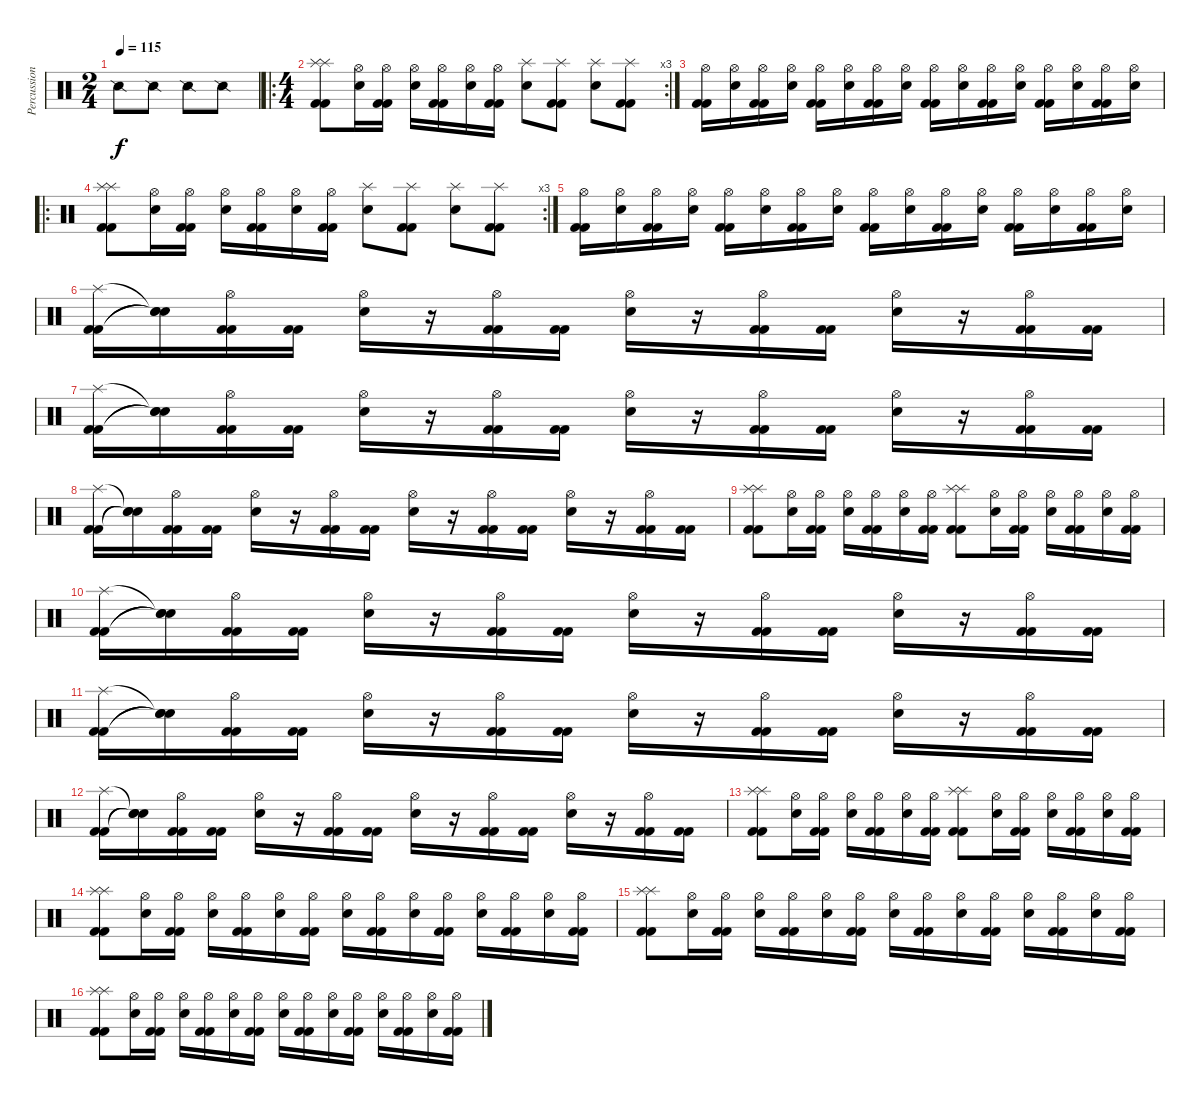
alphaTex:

\track ("Percussion" "Percussion") {instrument percussion}
\staff {score}
\articulation defaults
\ts (2 4)
\tempo 115
\clef neutral
\ks c "Snare (side stick) 2".8{dy f} "Snare (side stick) 2".8 "Snare (side stick) 2".8 "Snare (side stick) 2".8
|
\ro
\rc 3
\ts (4 4)
("Splash (hit)" "Splash (hit)" "Kick (hit) 2" "Kick (hit) 2").8 ("Hi-Hat (open)" "Electric Snare (hit)").16 ("Hi-Hat (open)" "Kick (hit) 2" "Kick (hit) 2").16 ("Hi-Hat (open)" "Electric Snare (hit)").16 ("Hi-Hat (open)" "Kick (hit) 2" "Kick (hit) 2").16 ("Hi-Hat (open)" "Electric Snare (hit)").16 ("Hi-Hat (open)" "Kick (hit) 2" "Kick (hit) 2").16 ("Splash (hit)" "Electric Snare (hit)").8 ("Splash (hit)" "Kick (hit) 2" "Kick (hit) 2").8 ("Splash (hit)" "Electric Snare (hit)").8 ("Splash (hit)" "Kick (hit) 2" "Kick (hit) 2").8 |
("Hi-Hat (open)" "Kick (hit) 2" "Kick (hit) 2").16 ("Hi-Hat (open)" "Electric Snare (hit)").16 ("Hi-Hat (open)" "Kick (hit) 2" "Kick (hit) 2").16 ("Hi-Hat (open)" "Electric Snare (hit)").16 ("Hi-Hat (open)" "Kick (hit) 2" "Kick (hit) 2").16 ("Hi-Hat (open)" "Electric Snare (hit)").16 ("Hi-Hat (open)" "Kick (hit) 2" "Kick (hit) 2").16 ("Hi-Hat (open)" "Electric Snare (hit)").16 ("Hi-Hat (open)" "Kick (hit) 2" "Kick (hit) 2").16 ("Hi-Hat (open)" "Electric Snare (hit)").16 ("Hi-Hat (open)" "Kick (hit) 2" "Kick (hit) 2").16 ("Hi-Hat (open)" "Electric Snare (hit)").16 ("Hi-Hat (open)" "Kick (hit) 2" "Kick (hit) 2").16 ("Hi-Hat (open)" "Electric Snare (hit)").16 ("Hi-Hat (open)" "Kick (hit) 2" "Kick (hit) 2").16 ("Hi-Hat (open)" "Electric Snare (hit)").16 |
\ro
\rc 3
("Splash (hit)" "Splash (hit)" "Kick (hit) 2" "Kick (hit) 2").8 ("Hi-Hat (open)" "Electric Snare (hit)").16 ("Hi-Hat (open)" "Kick (hit) 2" "Kick (hit) 2").16 ("Hi-Hat (open)" "Electric Snare (hit)").16 ("Hi-Hat (open)" "Kick (hit) 2" "Kick (hit) 2").16 ("Hi-Hat (open)" "Electric Snare (hit)").16 ("Hi-Hat (open)" "Kick (hit) 2" "Kick (hit) 2").16 ("Splash (hit)" "Electric Snare (hit)").8 ("Splash (hit)" "Kick (hit) 2" "Kick (hit) 2").8 ("Splash (hit)" "Electric Snare (hit)").8 ("Splash (hit)" "Kick (hit) 2" "Kick (hit) 2").8 |
("Hi-Hat (open)" "Kick (hit) 2" "Kick (hit) 2").16 ("Hi-Hat (open)" "Electric Snare (hit)").16 ("Hi-Hat (open)" "Kick (hit) 2" "Kick (hit) 2").16 ("Hi-Hat (open)" "Electric Snare (hit)").16 ("Hi-Hat (open)" "Kick (hit) 2" "Kick (hit) 2").16 ("Hi-Hat (open)" "Electric Snare (hit)").16 ("Hi-Hat (open)" "Kick (hit) 2" "Kick (hit) 2").16 ("Hi-Hat (open)" "Electric Snare (hit)").16 ("Hi-Hat (open)" "Kick (hit) 2" "Kick (hit) 2").16 ("Hi-Hat (open)" "Electric Snare (hit)").16 ("Hi-Hat (open)" "Kick (hit) 2" "Kick (hit) 2").16 ("Hi-Hat (open)" "Electric Snare (hit)").16 ("Hi-Hat (open)" "Kick (hit) 2" "Kick (hit) 2").16 ("Hi-Hat (open)" "Electric Snare (hit)").16 ("Hi-Hat (open)" "Kick (hit) 2" "Kick (hit) 2").16 ("Hi-Hat (open)" "Electric Snare (hit)").16 |
("Splash (hit)" "Kick (hit) 2" "Kick (hit) 2").16 ("Snare (hit)"{t} "Snare (hit)"{t} "Snare (hit)"{t}).16 ("Hi-Hat (open)" "Kick (hit) 2" "Kick (hit) 2").16 ("Kick (hit) 2" "Kick (hit) 2").16 ("Hi-Hat (open)" "Electric Snare (hit)").16 r.16 ("Hi-Hat (open)" "Kick (hit) 2" "Kick (hit) 2").16 ("Kick (hit) 2" "Kick (hit) 2").16 ("Hi-Hat (open)" "Electric Snare (hit)").16 r.16 ("Hi-Hat (open)" "Kick (hit) 2" "Kick (hit) 2").16 ("Kick (hit) 2" "Kick (hit) 2").16 ("Hi-Hat (open)" "Electric Snare (hit)").16 r.16 ("Hi-Hat (open)" "Kick (hit) 2" "Kick (hit) 2").16 ("Kick (hit) 2" "Kick (hit) 2").16 |
("Splash (hit)" "Kick (hit) 2" "Kick (hit) 2").16 ("Snare (hit)"{t} "Snare (hit)"{t} "Snare (hit)"{t}).16 ("Hi-Hat (open)" "Kick (hit) 2" "Kick (hit) 2").16 ("Kick (hit) 2" "Kick (hit) 2").16 ("Hi-Hat (open)" "Electric Snare (hit)").16 r.16 ("Hi-Hat (open)" "Kick (hit) 2" "Kick (hit) 2").16 ("Kick (hit) 2" "Kick (hit) 2").16 ("Hi-Hat (open)" "Electric Snare (hit)").16 r.16 ("Hi-Hat (open)" "Kick (hit) 2" "Kick (hit) 2").16 ("Kick (hit) 2" "Kick (hit) 2").16 ("Hi-Hat (open)" "Electric Snare (hit)").16 r.16 ("Hi-Hat (open)" "Kick (hit) 2" "Kick (hit) 2").16 ("Kick (hit) 2" "Kick (hit) 2").16 |
("Splash (hit)" "Kick (hit) 2" "Kick (hit) 2").16 ("Snare (hit)"{t} "Snare (hit)"{t} "Snare (hit)"{t}).16 ("Hi-Hat (open)" "Kick (hit) 2" "Kick (hit) 2").16 ("Kick (hit) 2" "Kick (hit) 2").16 ("Hi-Hat (open)" "Electric Snare (hit)").16 r.16 ("Hi-Hat (open)" "Kick (hit) 2" "Kick (hit) 2").16 ("Kick (hit) 2" "Kick (hit) 2").16 ("Hi-Hat (open)" "Electric Snare (hit)").16 r.16 ("Hi-Hat (open)" "Kick (hit) 2" "Kick (hit) 2").16 ("Kick (hit) 2" "Kick (hit) 2").16 ("Hi-Hat (open)" "Electric Snare (hit)").16 r.16 ("Hi-Hat (open)" "Kick (hit) 2" "Kick (hit) 2").16 ("Kick (hit) 2" "Kick (hit) 2").16 |
("Splash (hit)" "Splash (hit)" "Kick (hit) 2" "Kick (hit) 2").8 ("Hi-Hat (open)" "Electric Snare (hit)").16 ("Hi-Hat (open)" "Kick (hit) 2" "Kick (hit) 2").16 ("Hi-Hat (open)" "Electric Snare (hit)").16 ("Hi-Hat (open)" "Kick (hit) 2" "Kick (hit) 2").16 ("Hi-Hat (open)" "Electric Snare (hit)").16 ("Hi-Hat (open)" "Kick (hit) 2" "Kick (hit) 2").16 ("Splash (hit)" "Splash (hit)" "Kick (hit) 2" "Kick (hit) 2").8 ("Hi-Hat (open)" "Electric Snare (hit)").16 ("Hi-Hat (open)" "Kick (hit) 2" "Kick (hit) 2").16 ("Hi-Hat (open)" "Electric Snare (hit)").16 ("Hi-Hat (open)" "Kick (hit) 2" "Kick (hit) 2").16 ("Hi-Hat (open)" "Electric Snare (hit)").16 ("Hi-Hat (open)" "Kick (hit) 2" "Kick (hit) 2").16 |
("Splash (hit)" "Kick (hit) 2" "Kick (hit) 2").16 ("Snare (hit)"{t} "Snare (hit)"{t} "Snare (hit)"{t}).16 ("Hi-Hat (open)" "Kick (hit) 2" "Kick (hit) 2").16 ("Kick (hit) 2" "Kick (hit) 2").16 ("Hi-Hat (open)" "Electric Snare (hit)").16 r.16 ("Hi-Hat (open)" "Kick (hit) 2" "Kick (hit) 2").16 ("Kick (hit) 2" "Kick (hit) 2").16 ("Hi-Hat (open)" "Electric Snare (hit)").16 r.16 ("Hi-Hat (open)" "Kick (hit) 2" "Kick (hit) 2").16 ("Kick (hit) 2" "Kick (hit) 2").16 ("Hi-Hat (open)" "Electric Snare (hit)").16 r.16 ("Hi-Hat (open)" "Kick (hit) 2" "Kick (hit) 2").16 ("Kick (hit) 2" "Kick (hit) 2").16 |
("Splash (hit)" "Kick (hit) 2" "Kick (hit) 2").16 ("Snare (hit)"{t} "Snare (hit)"{t} "Snare (hit)"{t}).16 ("Hi-Hat (open)" "Kick (hit) 2" "Kick (hit) 2").16 ("Kick (hit) 2" "Kick (hit) 2").16 ("Hi-Hat (open)" "Electric Snare (hit)").16 r.16 ("Hi-Hat (open)" "Kick (hit) 2" "Kick (hit) 2").16 ("Kick (hit) 2" "Kick (hit) 2").16 ("Hi-Hat (open)" "Electric Snare (hit)").16 r.16 ("Hi-Hat (open)" "Kick (hit) 2" "Kick (hit) 2").16 ("Kick (hit) 2" "Kick (hit) 2").16 ("Hi-Hat (open)" "Electric Snare (hit)").16 r.16 ("Hi-Hat (open)" "Kick (hit) 2" "Kick (hit) 2").16 ("Kick (hit) 2" "Kick (hit) 2").16 |
("Splash (hit)" "Kick (hit) 2" "Kick (hit) 2").16 ("Snare (hit)"{t} "Snare (hit)"{t} "Snare (hit)"{t}).16 ("Hi-Hat (open)" "Kick (hit) 2" "Kick (hit) 2").16 ("Kick (hit) 2" "Kick (hit) 2").16 ("Hi-Hat (open)" "Electric Snare (hit)").16 r.16 ("Hi-Hat (open)" "Kick (hit) 2" "Kick (hit) 2").16 ("Kick (hit) 2" "Kick (hit) 2").16 ("Hi-Hat (open)" "Electric Snare (hit)").16 r.16 ("Hi-Hat (open)" "Kick (hit) 2" "Kick (hit) 2").16 ("Kick (hit) 2" "Kick (hit) 2").16 ("Hi-Hat (open)" "Electric Snare (hit)").16 r.16 ("Hi-Hat (open)" "Kick (hit) 2" "Kick (hit) 2").16 ("Kick (hit) 2" "Kick (hit) 2").16 |
("Splash (hit)" "Splash (hit)" "Kick (hit) 2" "Kick (hit) 2").8 ("Hi-Hat (open)" "Electric Snare (hit)").16 ("Hi-Hat (open)" "Kick (hit) 2" "Kick (hit) 2").16 ("Hi-Hat (open)" "Electric Snare (hit)").16 ("Hi-Hat (open)" "Kick (hit) 2" "Kick (hit) 2").16 ("Hi-Hat (open)" "Electric Snare (hit)").16 ("Hi-Hat (open)" "Kick (hit) 2" "Kick (hit) 2").16 ("Splash (hit)" "Splash (hit)" "Kick (hit) 2" "Kick (hit) 2").8 ("Hi-Hat (open)" "Electric Snare (hit)").16 ("Hi-Hat (open)" "Kick (hit) 2" "Kick (hit) 2").16 ("Hi-Hat (open)" "Electric Snare (hit)").16 ("Hi-Hat (open)" "Kick (hit) 2" "Kick (hit) 2").16 ("Hi-Hat (open)" "Electric Snare (hit)").16 ("Hi-Hat (open)" "Kick (hit) 2" "Kick (hit) 2").16 |
("Splash (hit)" "Splash (hit)" "Kick (hit) 2" "Kick (hit) 2").8 ("Hi-Hat (open)" "Electric Snare (hit)").16 ("Hi-Hat (open)" "Kick (hit) 2" "Kick (hit) 2").16 ("Hi-Hat (open)" "Electric Snare (hit)").16 ("Hi-Hat (open)" "Kick (hit) 2" "Kick (hit) 2").16 ("Hi-Hat (open)" "Electric Snare (hit)").16 ("Hi-Hat (open)" "Kick (hit) 2" "Kick (hit) 2").16 ("Hi-Hat (open)" "Electric Snare (hit)").16 ("Hi-Hat (open)" "Kick (hit) 2" "Kick (hit) 2").16 ("Hi-Hat (open)" "Electric Snare (hit)").16 ("Hi-Hat (open)" "Kick (hit) 2" "Kick (hit) 2").16 ("Hi-Hat (open)" "Electric Snare (hit)").16 ("Hi-Hat (open)" "Kick (hit) 2" "Kick (hit) 2").16 ("Hi-Hat (open)" "Electric Snare (hit)").16 ("Hi-Hat (open)" "Kick (hit) 2" "Kick (hit) 2").16 |
("Splash (hit)" "Splash (hit)" "Kick (hit) 2" "Kick (hit) 2").8 ("Hi-Hat (open)" "Electric Snare (hit)").16 ("Hi-Hat (open)" "Kick (hit) 2" "Kick (hit) 2").16 ("Hi-Hat (open)" "Electric Snare (hit)").16 ("Hi-Hat (open)" "Kick (hit) 2" "Kick (hit) 2").16 ("Hi-Hat (open)" "Electric Snare (hit)").16 ("Hi-Hat (open)" "Kick (hit) 2" "Kick (hit) 2").16 ("Hi-Hat (open)" "Electric Snare (hit)").16 ("Hi-Hat (open)" "Kick (hit) 2" "Kick (hit) 2").16 ("Hi-Hat (open)" "Electric Snare (hit)").16 ("Hi-Hat (open)" "Kick (hit) 2" "Kick (hit) 2").16 ("Hi-Hat (open)" "Electric Snare (hit)").16 ("Hi-Hat (open)" "Kick (hit) 2" "Kick (hit) 2").16 ("Hi-Hat (open)" "Electric Snare (hit)").16 ("Hi-Hat (open)" "Kick (hit) 2" "Kick (hit) 2").16 |
("Splash (hit)" "Splash (hit)" "Kick (hit) 2" "Kick (hit) 2").8 ("Hi-Hat (open)" "Electric Snare (hit)").16 ("Hi-Hat (open)" "Kick (hit) 2" "Kick (hit) 2").16 ("Hi-Hat (open)" "Electric Snare (hit)").16 ("Hi-Hat (open)" "Kick (hit) 2" "Kick (hit) 2").16 ("Hi-Hat (open)" "Electric Snare (hit)").16 ("Hi-Hat (open)" "Kick (hit) 2" "Kick (hit) 2").16 ("Hi-Hat (open)" "Electric Snare (hit)").16 ("Hi-Hat (open)" "Kick (hit) 2" "Kick (hit) 2").16 ("Hi-Hat (open)" "Electric Snare (hit)").16 ("Hi-Hat (open)" "Kick (hit) 2" "Kick (hit) 2").16 ("Hi-Hat (open)" "Electric Snare (hit)").16 ("Hi-Hat (open)" "Kick (hit) 2" "Kick (hit) 2").16 ("Hi-Hat (open)" "Electric Snare (hit)").16 ("Hi-Hat (open)" "Kick (hit) 2" "Kick (hit) 2").16
